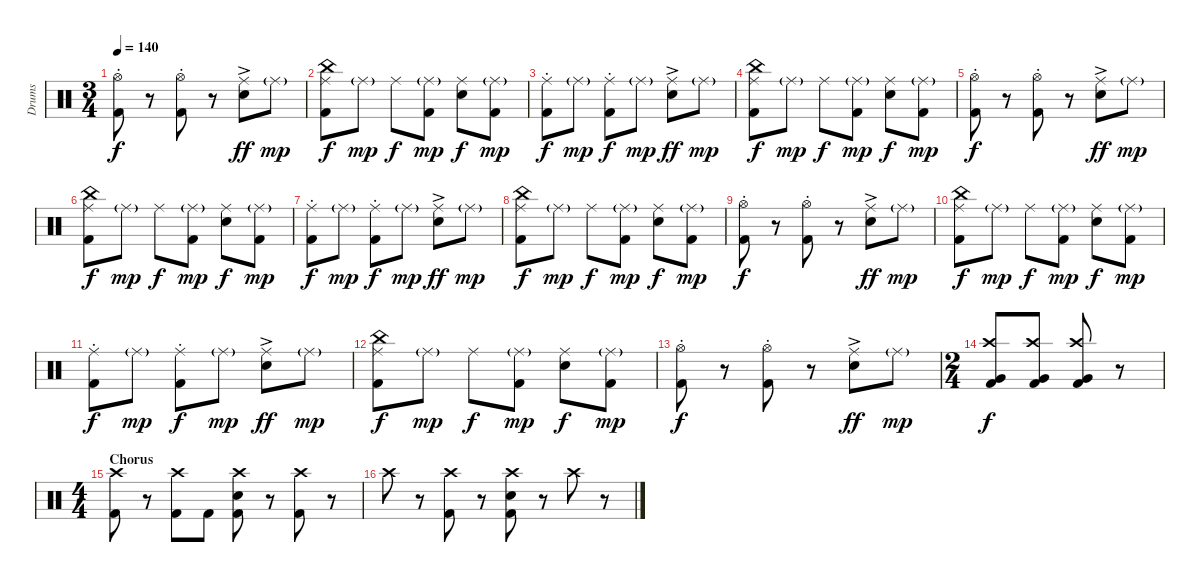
\track ("Drums" "Drums") {instrument percussion}
\staff {score}
\articulation defaults
\ts (3 4)
\tempo 140
\clef neutral
\ks c
("Hi-Hat (open)"{st} "Kick (hit) 2").8{dy f} r.8 ("Hi-Hat (open)"{st} "Kick (hit) 2").8 r.8 ("Snare (hit) 2"{ac} "Ride (middle)").8{dy ff} "Ride (middle)"{g}.8{dy mp} |
("China (hit)" "Ride (middle)" "Kick (hit) 2").8{dy f} "Ride (middle)"{g}.8{dy mp} "Ride (middle)".8{dy f} ("Ride (middle)"{g} "Kick (hit) 2").8{dy mp} ("Ride (middle)" "Snare (hit) 2").8{dy f} ("Ride (middle)"{g} "Kick (hit) 2").8{dy mp} |
("Ride (middle)"{st} "Kick (hit) 2").8{dy f} "Ride (middle)"{g}.8{dy mp} ("Ride (middle)"{st} "Kick (hit) 2").8{dy f} "Ride (middle)"{g}.8{dy mp} ("Snare (hit) 2"{ac} "Ride (middle)").8{dy ff} "Ride (middle)"{g}.8{dy mp} |
("China (hit)" "Ride (middle)" "Kick (hit) 2").8{dy f} "Ride (middle)"{g}.8{dy mp} "Ride (middle)".8{dy f} ("Ride (middle)"{g} "Kick (hit) 2").8{dy mp} ("Ride (middle)" "Snare (hit) 2").8{dy f} ("Ride (middle)"{g} "Kick (hit) 2").8{dy mp} |
("Hi-Hat (open)"{st} "Kick (hit) 2").8{dy f} r.8 ("Hi-Hat (open)"{st} "Kick (hit) 2").8 r.8 ("Snare (hit) 2"{ac} "Ride (middle)").8{dy ff} "Ride (middle)"{g}.8{dy mp} |
("China (hit)" "Ride (middle)" "Kick (hit) 2").8{dy f} "Ride (middle)"{g}.8{dy mp} "Ride (middle)".8{dy f} ("Ride (middle)"{g} "Kick (hit) 2").8{dy mp} ("Ride (middle)" "Snare (hit) 2").8{dy f} ("Ride (middle)"{g} "Kick (hit) 2").8{dy mp} |
("Ride (middle)"{st} "Kick (hit) 2").8{dy f} "Ride (middle)"{g}.8{dy mp} ("Ride (middle)"{st} "Kick (hit) 2").8{dy f} "Ride (middle)"{g}.8{dy mp} ("Snare (hit) 2"{ac} "Ride (middle)").8{dy ff} "Ride (middle)"{g}.8{dy mp} |
("China (hit)" "Ride (middle)" "Kick (hit) 2").8{dy f} "Ride (middle)"{g}.8{dy mp} "Ride (middle)".8{dy f} ("Ride (middle)"{g} "Kick (hit) 2").8{dy mp} ("Ride (middle)" "Snare (hit) 2").8{dy f} ("Ride (middle)"{g} "Kick (hit) 2").8{dy mp} |
("Hi-Hat (open)"{st} "Kick (hit) 2").8{dy f} r.8 ("Hi-Hat (open)"{st} "Kick (hit) 2").8 r.8 ("Snare (hit) 2"{ac} "Ride (middle)").8{dy ff} "Ride (middle)"{g}.8{dy mp} |
("China (hit)" "Ride (middle)" "Kick (hit) 2").8{dy f} "Ride (middle)"{g}.8{dy mp} "Ride (middle)".8{dy f} ("Ride (middle)"{g} "Kick (hit) 2").8{dy mp} ("Ride (middle)" "Snare (hit) 2").8{dy f} ("Ride (middle)"{g} "Kick (hit) 2").8{dy mp} |
("Ride (middle)"{st} "Kick (hit) 2").8{dy f} "Ride (middle)"{g}.8{dy mp} ("Ride (middle)"{st} "Kick (hit) 2").8{dy f} "Ride (middle)"{g}.8{dy mp} ("Snare (hit) 2"{ac} "Ride (middle)").8{dy ff} "Ride (middle)"{g}.8{dy mp} |
("China (hit)" "Ride (middle)" "Kick (hit) 2").8{dy f} "Ride (middle)"{g}.8{dy mp} "Ride (middle)".8{dy f} ("Ride (middle)"{g} "Kick (hit) 2").8{dy mp} ("Ride (middle)" "Snare (hit) 2").8{dy f} ("Ride (middle)"{g} "Kick (hit) 2").8{dy mp} |
("Hi-Hat (open)"{st} "Kick (hit) 2").8{dy f} r.8 ("Hi-Hat (open)"{st} "Kick (hit) 2").8 r.8 ("Snare (hit) 2"{ac} "Ride (middle)").8{dy ff} "Ride (middle)"{g}.8{dy mp} |
\ts (2 4)
("Crash high (hit)" "Very Low Tom (hit)" "Kick (hit) 2").8{dy f} ("Crash high (hit)" "Very Low Tom (hit)" "Kick (hit) 2").8 ("Crash high (hit)" "Very Low Tom (hit)" "Kick (hit) 2").8 r.8 |
\ts (4 4)
\section ("" "Chorus")
("Crash high (hit)" "Kick (hit) 2").8 r.8 ("Crash high (hit)" "Kick (hit) 2").8 "Kick (hit) 2".8 ("Crash high (hit)" "Snare (hit) 2" "Kick (hit) 2").8 r.8 ("Crash high (hit)" "Kick (hit) 2").8 r.8 |
"Crash high (hit)".8 r.8 ("Crash high (hit)" "Kick (hit) 2").8 r.8 ("Crash high (hit)" "Snare (hit) 2" "Kick (hit) 2").8 r.8 "Crash high (hit)".8 r.8
